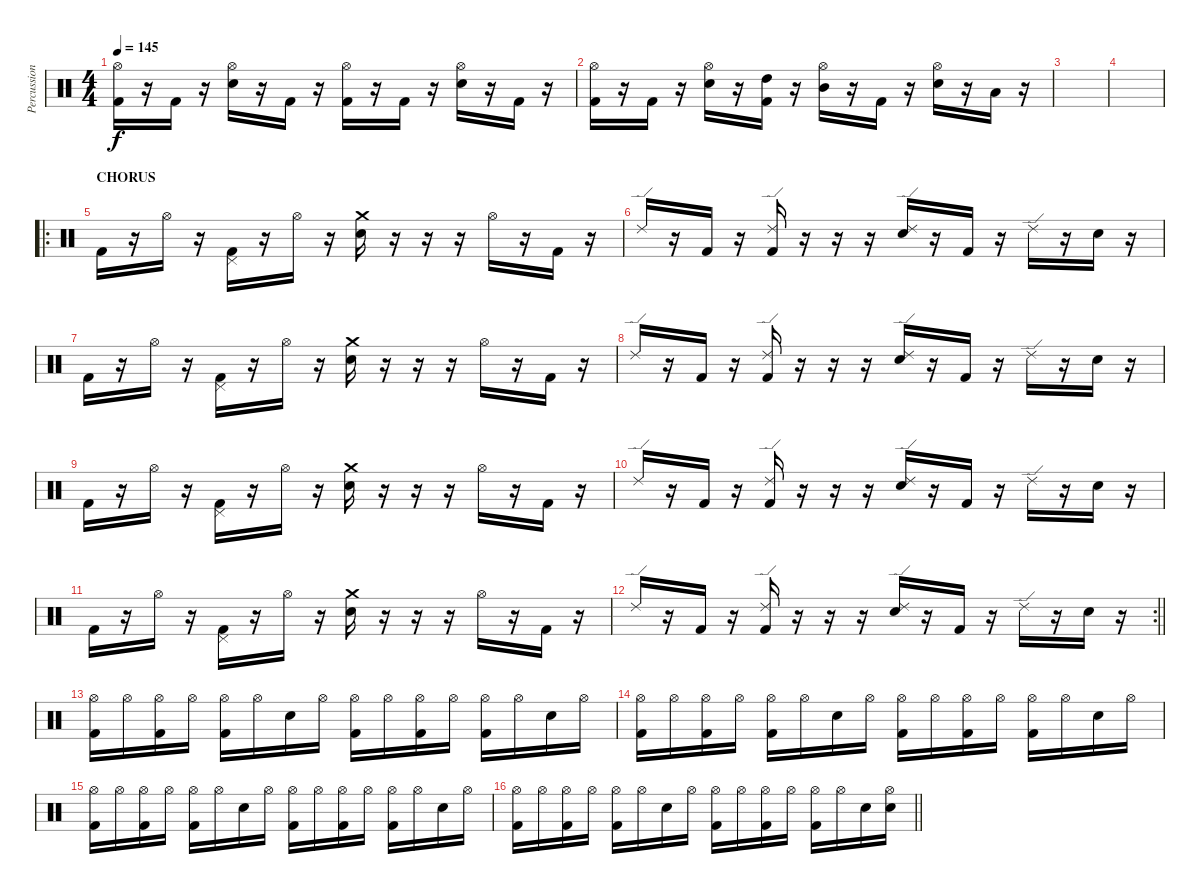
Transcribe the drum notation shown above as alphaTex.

\track ("Percussion" "Percussion") {instrument percussion}
\staff {score}
\articulation defaults
\ts (4 4)
\tempo 145
\clef neutral
\ks c
("Kick (hit) 2" "Hi-Hat (open)").16{dy f} r.16 "Kick (hit) 2".16 r.16 ("Snare (hit) 2" "Hi-Hat (open)").16 r.16 "Kick (hit) 2".16 r.16 ("Kick (hit) 2" "Hi-Hat (open)").16 r.16 "Kick (hit) 2".16 r.16 ("Snare (hit) 2" "Hi-Hat (open)").16 r.16 "Kick (hit) 2".16 r.16 |
("Kick (hit) 2" "Hi-Hat (open)").16 r.16 "Kick (hit) 2".16 r.16 ("Snare (hit) 2" "Hi-Hat (open)").16 r.16 ("High Tom (hit)" "Kick (hit) 2").16 r.16 ("Mid Tom (hit)" "Hi-Hat (open)").16 r.16 "Kick (hit) 2".16 r.16 ("Snare (hit) 2" "Hi-Hat (open)").16 r.16 "Low Floor Tom (hit)".16 r.16 |
|
|
\ro
\section ("" "CHORUS")
"Kick (hit) 2".16 r.16 "Hi-Hat (open)".16 r.16 ("Kick (hit) 2" "Pedal Hi-Hat (hit)").16 r.16 "Hi-Hat (open)".16 r.16 ("Snare (hit) 2" "Crash medium (hit)").16 r.16 r.16 r.16 "Hi-Hat (open)".16 r.16 "Kick (hit) 2".16 r.16 |
"Ride (edge) 2".16 r.16 "Kick (hit) 2".16 r.16 ("Kick (hit) 2" "Ride (edge) 2").16 r.16 r.16 r.16 ("Snare (hit) 2" "Ride (edge) 2").16 r.16 "Kick (hit) 2".16 r.16 "Ride (edge) 2".16 r.16 "Snare (hit) 2".16 r.16 |
"Kick (hit) 2".16 r.16 "Hi-Hat (open)".16 r.16 ("Kick (hit) 2" "Pedal Hi-Hat (hit)").16 r.16 "Hi-Hat (open)".16 r.16 ("Snare (hit) 2" "Crash medium (hit)").16 r.16 r.16 r.16 "Hi-Hat (open)".16 r.16 "Kick (hit) 2".16 r.16 |
"Ride (edge) 2".16 r.16 "Kick (hit) 2".16 r.16 ("Kick (hit) 2" "Ride (edge) 2").16 r.16 r.16 r.16 ("Snare (hit) 2" "Ride (edge) 2").16 r.16 "Kick (hit) 2".16 r.16 "Ride (edge) 2".16 r.16 "Snare (hit) 2".16 r.16 |
"Kick (hit) 2".16 r.16 "Hi-Hat (open)".16 r.16 ("Kick (hit) 2" "Pedal Hi-Hat (hit)").16 r.16 "Hi-Hat (open)".16 r.16 ("Snare (hit) 2" "Crash medium (hit)").16 r.16 r.16 r.16 "Hi-Hat (open)".16 r.16 "Kick (hit) 2".16 r.16 |
"Ride (edge) 2".16 r.16 "Kick (hit) 2".16 r.16 ("Kick (hit) 2" "Ride (edge) 2").16 r.16 r.16 r.16 ("Snare (hit) 2" "Ride (edge) 2").16 r.16 "Kick (hit) 2".16 r.16 "Ride (edge) 2".16 r.16 "Snare (hit) 2".16 r.16 |
"Kick (hit) 2".16 r.16 "Hi-Hat (open)".16 r.16 ("Kick (hit) 2" "Pedal Hi-Hat (hit)").16 r.16 "Hi-Hat (open)".16 r.16 ("Snare (hit) 2" "Crash medium (hit)").16 r.16 r.16 r.16 "Hi-Hat (open)".16 r.16 "Kick (hit) 2".16 r.16 |
\rc 2
\barLineRight lightlight "Ride (edge) 2".16
r.16 "Kick (hit) 2".16 r.16 ("Kick (hit) 2" "Ride (edge) 2").16 r.16 r.16 r.16 ("Snare (hit) 2" "Ride (edge) 2").16 r.16 "Kick (hit) 2".16 r.16 "Ride (edge) 2".16 r.16 "Snare (hit) 2".16 r.16 |
("Kick (hit) 2" "Hi-Hat (open)").16 "Hi-Hat (open)".16 ("Kick (hit) 2" "Hi-Hat (open)").16 "Hi-Hat (open)".16 ("Kick (hit) 2" "Hi-Hat (open)").16 "Hi-Hat (open)".16 "Snare (hit) 2".16 "Hi-Hat (open)".16 ("Kick (hit) 2" "Hi-Hat (open)").16 "Hi-Hat (open)".16 ("Kick (hit) 2" "Hi-Hat (open)").16 "Hi-Hat (open)".16 ("Kick (hit) 2" "Hi-Hat (open)").16 "Hi-Hat (open)".16 "Snare (hit) 2".16 "Hi-Hat (open)".16 |
("Kick (hit) 2" "Hi-Hat (open)").16 "Hi-Hat (open)".16 ("Kick (hit) 2" "Hi-Hat (open)").16 "Hi-Hat (open)".16 ("Kick (hit) 2" "Hi-Hat (open)").16 "Hi-Hat (open)".16 "Snare (hit) 2".16 "Hi-Hat (open)".16 ("Kick (hit) 2" "Hi-Hat (open)").16 "Hi-Hat (open)".16 ("Kick (hit) 2" "Hi-Hat (open)").16 "Hi-Hat (open)".16 ("Kick (hit) 2" "Hi-Hat (open)").16 "Hi-Hat (open)".16 "Snare (hit) 2".16 "Hi-Hat (open)".16 |
("Kick (hit) 2" "Hi-Hat (open)").16 "Hi-Hat (open)".16 ("Kick (hit) 2" "Hi-Hat (open)").16 "Hi-Hat (open)".16 ("Kick (hit) 2" "Hi-Hat (open)").16 "Hi-Hat (open)".16 "Snare (hit) 2".16 "Hi-Hat (open)".16 ("Kick (hit) 2" "Hi-Hat (open)").16 "Hi-Hat (open)".16 ("Kick (hit) 2" "Hi-Hat (open)").16 "Hi-Hat (open)".16 ("Kick (hit) 2" "Hi-Hat (open)").16 "Hi-Hat (open)".16 "Snare (hit) 2".16 "Hi-Hat (open)".16 |
\barLineRight lightlight
("Kick (hit) 2" "Hi-Hat (open)").16 "Hi-Hat (open)".16 ("Kick (hit) 2" "Hi-Hat (open)").16 "Hi-Hat (open)".16 ("Kick (hit) 2" "Hi-Hat (open)").16 "Hi-Hat (open)".16 "Snare (hit) 2".16 "Hi-Hat (open)".16 ("Kick (hit) 2" "Hi-Hat (open)").16 "Hi-Hat (open)".16 ("Kick (hit) 2" "Hi-Hat (open)").16 "Hi-Hat (open)".16 ("Kick (hit) 2" "Hi-Hat (open)").16 "Hi-Hat (open)".16 "Snare (hit) 2".16 ("Snare (hit) 2" "Hi-Hat (open)").16
